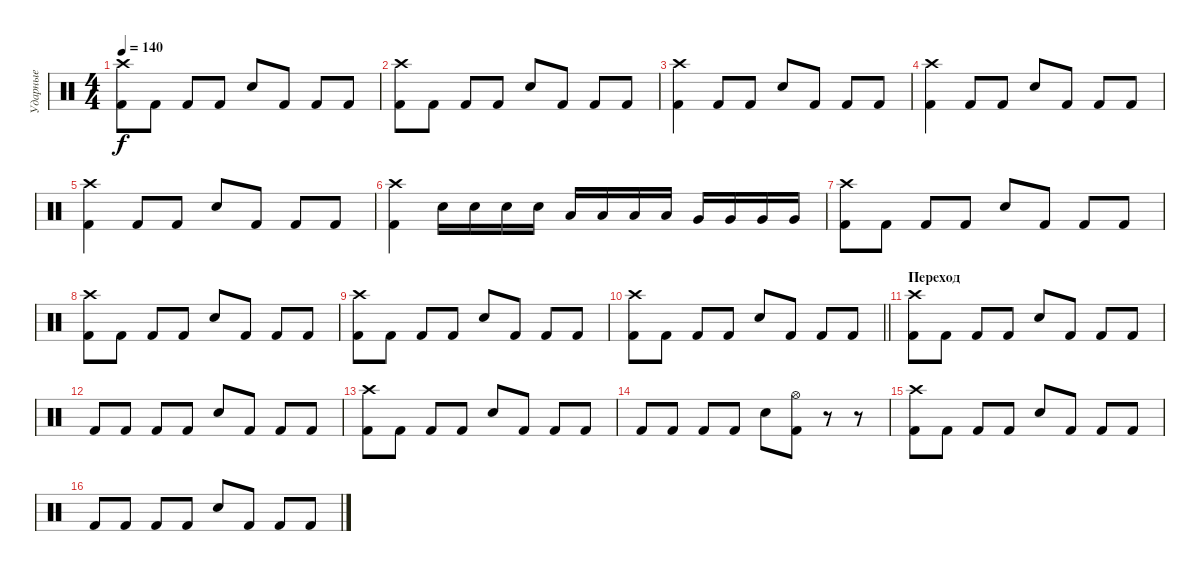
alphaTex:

\track ("Ударные" "Ударные") {instrument percussion}
\staff {score}
\articulation defaults
\ts (4 4)
\tempo 140
\clef neutral
\ks c
("Crash high (hit)" "Kick (hit) 2").8{dy f} "Kick (hit) 2".8 "Kick (hit) 2".8 "Kick (hit) 2".8 "Electric Snare (hit)".8 "Kick (hit) 2".8 "Kick (hit) 2".8 "Kick (hit) 2".8 |
("Crash high (hit)" "Kick (hit) 2").8 "Kick (hit) 2".8 "Kick (hit) 2".8 "Kick (hit) 2".8 "Electric Snare (hit)".8 "Kick (hit) 2".8 "Kick (hit) 2".8 "Kick (hit) 2".8 |
("Crash high (hit)" "Kick (hit) 2").4 "Kick (hit) 2".8 "Kick (hit) 2".8 "Electric Snare (hit)".8 "Kick (hit) 2".8 "Kick (hit) 2".8 "Kick (hit) 2".8 |
("Crash high (hit)" "Kick (hit) 2").4 "Kick (hit) 2".8 "Kick (hit) 2".8 "Electric Snare (hit)".8 "Kick (hit) 2".8 "Kick (hit) 2".8 "Kick (hit) 2".8 |
("Crash high (hit)" "Kick (hit) 2").4 "Kick (hit) 2".8 "Kick (hit) 2".8 "Electric Snare (hit)".8 "Kick (hit) 2".8 "Kick (hit) 2".8 "Kick (hit) 2".8 |
("Crash high (hit)" "Kick (hit) 2").4 "Electric Snare (hit)".16 "Electric Snare (hit)".16 "Electric Snare (hit)".16 "Electric Snare (hit)".16 "Low Tom (hit)".16 "Low Tom (hit)".16 "Low Tom (hit)".16 "Low Tom (hit)".16 "Very Low Tom (hit)".16 "Very Low Tom (hit)".16 "Very Low Tom (hit)".16 "Very Low Tom (hit)".16 |
("Crash high (hit)" "Kick (hit) 2").8 "Kick (hit) 2".8 "Kick (hit) 2".8 "Kick (hit) 2".8 "Electric Snare (hit)".8 "Kick (hit) 2".8 "Kick (hit) 2".8 "Kick (hit) 2".8 |
("Crash high (hit)" "Kick (hit) 2").8 "Kick (hit) 2".8 "Kick (hit) 2".8 "Kick (hit) 2".8 "Electric Snare (hit)".8 "Kick (hit) 2".8 "Kick (hit) 2".8 "Kick (hit) 2".8 |
("Crash high (hit)" "Kick (hit) 2").8 "Kick (hit) 2".8 "Kick (hit) 2".8 "Kick (hit) 2".8 "Electric Snare (hit)".8 "Kick (hit) 2".8 "Kick (hit) 2".8 "Kick (hit) 2".8 |
\barLineRight lightlight
("Crash high (hit)" "Kick (hit) 2").8 "Kick (hit) 2".8 "Kick (hit) 2".8 "Kick (hit) 2".8 "Electric Snare (hit)".8 "Kick (hit) 2".8 "Kick (hit) 2".8 "Kick (hit) 2".8 |
\section ("" "Переход")
("Crash high (hit)" "Kick (hit) 2").8 "Kick (hit) 2".8 "Kick (hit) 2".8 "Kick (hit) 2".8 "Electric Snare (hit)".8 "Kick (hit) 2".8 "Kick (hit) 2".8 "Kick (hit) 2".8 |
"Kick (hit) 2".8 "Kick (hit) 2".8 "Kick (hit) 2".8 "Kick (hit) 2".8 "Electric Snare (hit)".8 "Kick (hit) 2".8 "Kick (hit) 2".8 "Kick (hit) 2".8 |
("Crash high (hit)" "Kick (hit) 2").8 "Kick (hit) 2".8 "Kick (hit) 2".8 "Kick (hit) 2".8 "Electric Snare (hit)".8 "Kick (hit) 2".8 "Kick (hit) 2".8 "Kick (hit) 2".8 |
"Kick (hit) 2".8 "Kick (hit) 2".8 "Kick (hit) 2".8 "Kick (hit) 2".8 "Electric Snare (hit)".8 ("Hi-Hat (open)" "Kick (hit) 2").8 r.8 r.8 |
("Crash high (hit)" "Kick (hit) 2").8 "Kick (hit) 2".8 "Kick (hit) 2".8 "Kick (hit) 2".8 "Electric Snare (hit)".8 "Kick (hit) 2".8 "Kick (hit) 2".8 "Kick (hit) 2".8 |
"Kick (hit) 2".8 "Kick (hit) 2".8 "Kick (hit) 2".8 "Kick (hit) 2".8 "Electric Snare (hit)".8 "Kick (hit) 2".8 "Kick (hit) 2".8 "Kick (hit) 2".8
